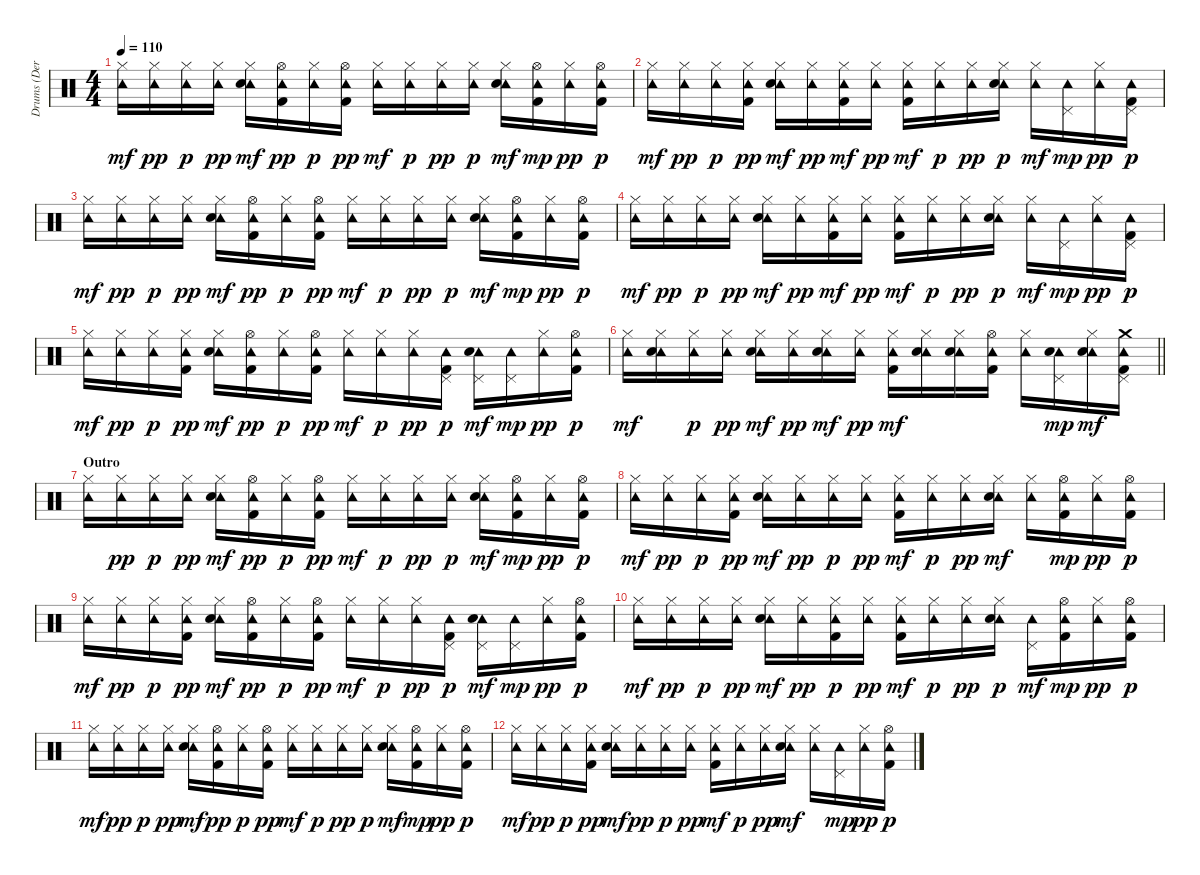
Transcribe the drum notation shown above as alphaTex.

\track ("Drums (Derrick McKenzie)" "Drums (Der") {instrument percussion}
\staff {score}
\articulation defaults
\ts (4 4)
\tempo 110
\clef neutral
\ks c
("Hi-Hat (closed)" "Tambourine (hit)").16{dy mf} ("Hi-Hat (closed)" "Tambourine (hit)").16{dy pp} ("Hi-Hat (closed)" "Tambourine (hit)").16{dy p} ("Hi-Hat (closed)" "Tambourine (hit)").16{dy pp} ("Hi-Hat (closed)" "Tambourine (hit)" "Electric Snare (hit)").16{dy mf} ("Hi-Hat (open)" "Tambourine (hit)" "Kick (hit) 2").16{dy pp} ("Hi-Hat (closed)" "Tambourine (hit)").16{dy p} ("Hi-Hat (open)" "Tambourine (hit)" "Kick (hit) 2").16{dy pp} ("Hi-Hat (closed)" "Tambourine (hit)").16{dy mf} ("Hi-Hat (closed)" "Tambourine (hit)").16{dy p} ("Hi-Hat (closed)" "Tambourine (hit)").16{dy pp} ("Hi-Hat (closed)" "Tambourine (hit)").16{dy p} ("Hi-Hat (closed)" "Tambourine (hit)" "Electric Snare (hit)").16{dy mf} ("Hi-Hat (open)" "Tambourine (hit)" "Kick (hit) 2").16{dy mp} ("Hi-Hat (closed)" "Tambourine (hit)").16{dy pp} ("Hi-Hat (open)" "Tambourine (hit)" "Kick (hit) 2").16{dy p} |
("Hi-Hat (closed)" "Tambourine (hit)").16{dy mf} ("Hi-Hat (closed)" "Tambourine (hit)").16{dy pp} ("Hi-Hat (closed)" "Tambourine (hit)").16{dy p} ("Hi-Hat (closed)" "Tambourine (hit)" "Kick (hit) 2").16{dy pp} ("Hi-Hat (closed)" "Tambourine (hit)" "Electric Snare (hit)").16{dy mf} ("Hi-Hat (closed)" "Tambourine (hit)").16{dy pp} ("Hi-Hat (closed)" "Tambourine (hit)" "Kick (hit) 2").16{dy mf} ("Hi-Hat (closed)" "Tambourine (hit)").16{dy pp} ("Hi-Hat (closed)" "Tambourine (hit)" "Kick (hit) 2").16{dy mf} ("Hi-Hat (closed)" "Tambourine (hit)").16{dy p} ("Hi-Hat (closed)" "Tambourine (hit)").16{dy pp} ("Hi-Hat (closed)" "Tambourine (hit)" "Electric Snare (hit)").16{dy p} ("Hi-Hat (closed)" "Tambourine (hit)").16{dy mf} ("Pedal Hi-Hat (hit)" "Tambourine (hit)").16{dy mp} ("Hi-Hat (closed)" "Tambourine (hit)").16{dy pp} ("Pedal Hi-Hat (hit)" "Tambourine (hit)" "Kick (hit) 2").16{dy p} |
("Hi-Hat (closed)" "Tambourine (hit)").16{dy mf} ("Hi-Hat (closed)" "Tambourine (hit)").16{dy pp} ("Hi-Hat (closed)" "Tambourine (hit)").16{dy p} ("Hi-Hat (closed)" "Tambourine (hit)").16{dy pp} ("Hi-Hat (closed)" "Tambourine (hit)" "Electric Snare (hit)").16{dy mf} ("Hi-Hat (open)" "Tambourine (hit)" "Kick (hit) 2").16{dy pp} ("Hi-Hat (closed)" "Tambourine (hit)").16{dy p} ("Hi-Hat (open)" "Tambourine (hit)" "Kick (hit) 2").16{dy pp} ("Hi-Hat (closed)" "Tambourine (hit)").16{dy mf} ("Hi-Hat (closed)" "Tambourine (hit)").16{dy p} ("Hi-Hat (closed)" "Tambourine (hit)").16{dy pp} ("Hi-Hat (closed)" "Tambourine (hit)").16{dy p} ("Hi-Hat (closed)" "Tambourine (hit)" "Electric Snare (hit)").16{dy mf} ("Hi-Hat (open)" "Tambourine (hit)" "Kick (hit) 2").16{dy mp} ("Hi-Hat (closed)" "Tambourine (hit)").16{dy pp} ("Hi-Hat (open)" "Tambourine (hit)" "Kick (hit) 2").16{dy p} |
("Hi-Hat (closed)" "Tambourine (hit)").16{dy mf} ("Hi-Hat (closed)" "Tambourine (hit)").16{dy pp} ("Hi-Hat (closed)" "Tambourine (hit)").16{dy p} ("Hi-Hat (closed)" "Tambourine (hit)").16{dy pp} ("Hi-Hat (closed)" "Tambourine (hit)" "Electric Snare (hit)").16{dy mf} ("Hi-Hat (closed)" "Tambourine (hit)").16{dy pp} ("Hi-Hat (closed)" "Tambourine (hit)" "Kick (hit) 2").16{dy mf} ("Hi-Hat (closed)" "Tambourine (hit)").16{dy pp} ("Hi-Hat (closed)" "Tambourine (hit)" "Kick (hit) 2").16{dy mf} ("Hi-Hat (closed)" "Tambourine (hit)").16{dy p} ("Hi-Hat (closed)" "Tambourine (hit)").16{dy pp} ("Hi-Hat (closed)" "Tambourine (hit)" "Electric Snare (hit)").16{dy p} ("Hi-Hat (closed)" "Tambourine (hit)").16{dy mf} ("Pedal Hi-Hat (hit)" "Tambourine (hit)").16{dy mp} ("Hi-Hat (closed)" "Tambourine (hit)").16{dy pp} ("Pedal Hi-Hat (hit)" "Tambourine (hit)" "Kick (hit) 2").16{dy p} |
("Hi-Hat (closed)" "Tambourine (hit)").16{dy mf} ("Hi-Hat (closed)" "Tambourine (hit)").16{dy pp} ("Hi-Hat (closed)" "Tambourine (hit)").16{dy p} ("Hi-Hat (closed)" "Tambourine (hit)" "Kick (hit) 2").16{dy pp} ("Hi-Hat (closed)" "Tambourine (hit)" "Electric Snare (hit)").16{dy mf} ("Hi-Hat (open)" "Tambourine (hit)" "Kick (hit) 2").16{dy pp} ("Hi-Hat (closed)" "Tambourine (hit)").16{dy p} ("Hi-Hat (open)" "Tambourine (hit)" "Kick (hit) 2").16{dy pp} ("Hi-Hat (closed)" "Tambourine (hit)").16{dy mf} ("Hi-Hat (closed)" "Tambourine (hit)").16{dy p} ("Hi-Hat (closed)" "Tambourine (hit)").16{dy pp} ("Pedal Hi-Hat (hit)" "Tambourine (hit)" "Kick (hit) 2").16{dy p} ("Pedal Hi-Hat (hit)" "Tambourine (hit)" "Electric Snare (hit)").16{dy mf} ("Pedal Hi-Hat (hit)" "Tambourine (hit)").16{dy mp} ("Hi-Hat (closed)" "Tambourine (hit)").16{dy pp} ("Hi-Hat (open)" "Tambourine (hit)" "Kick (hit) 2").16{dy p} |
\barLineRight lightlight
("Hi-Hat (closed)" "Tambourine (hit)").16{dy mf} ("Hi-Hat (closed)" "Tambourine (hit)" "Electric Snare (hit)").16 ("Hi-Hat (closed)" "Tambourine (hit)").16{dy p} ("Hi-Hat (closed)" "Tambourine (hit)").16{dy pp} ("Hi-Hat (closed)" "Tambourine (hit)" "Electric Snare (hit)").16{dy mf} ("Hi-Hat (closed)" "Tambourine (hit)").16{dy pp} ("Hi-Hat (closed)" "Tambourine (hit)" "Electric Snare (hit)").16{dy mf} ("Hi-Hat (closed)" "Tambourine (hit)").16{dy pp} ("Hi-Hat (closed)" "Tambourine (hit)" "Kick (hit) 2").16{dy mf} ("Hi-Hat (closed)" "Tambourine (hit)" "Electric Snare (hit)").16 ("Hi-Hat (closed)" "Tambourine (hit)" "Electric Snare (hit)").16 ("Hi-Hat (open)" "Tambourine (hit)" "Kick (hit) 2").16 ("Hi-Hat (closed)" "Tambourine (hit)").16 ("Pedal Hi-Hat (hit)" "Tambourine (hit)" "Electric Snare (hit)").16{dy mp} ("Hi-Hat (closed)" "Tambourine (hit)" "Electric Snare (hit)").16{dy mf} ("Pedal Hi-Hat (hit)" "Tambourine (hit)" "Crash medium (hit)" "Kick (hit) 2").16 |
\section ("" "Outro")
("Hi-Hat (closed)" "Tambourine (hit)").16{volume 6} ("Hi-Hat (closed)" "Tambourine (hit)").16{dy pp} ("Hi-Hat (closed)" "Tambourine (hit)").16{dy p} ("Hi-Hat (closed)" "Tambourine (hit)").16{dy pp} ("Hi-Hat (closed)" "Tambourine (hit)" "Electric Snare (hit)").16{dy mf} ("Hi-Hat (open)" "Tambourine (hit)" "Kick (hit) 2").16{dy pp} ("Hi-Hat (closed)" "Tambourine (hit)").16{dy p} ("Hi-Hat (open)" "Tambourine (hit)" "Kick (hit) 2").16{dy pp} ("Hi-Hat (closed)" "Tambourine (hit)").16{dy mf} ("Hi-Hat (closed)" "Tambourine (hit)").16{dy p} ("Hi-Hat (closed)" "Tambourine (hit)").16{dy pp} ("Hi-Hat (closed)" "Tambourine (hit)").16{dy p} ("Hi-Hat (closed)" "Tambourine (hit)" "Electric Snare (hit)").16{dy mf} ("Hi-Hat (open)" "Tambourine (hit)" "Kick (hit) 2").16{dy mp} ("Hi-Hat (closed)" "Tambourine (hit)").16{dy pp} ("Hi-Hat (open)" "Tambourine (hit)" "Kick (hit) 2").16{dy p} |
("Hi-Hat (closed)" "Tambourine (hit)").16{dy mf} ("Hi-Hat (closed)" "Tambourine (hit)").16{dy pp} ("Hi-Hat (closed)" "Tambourine (hit)").16{dy p} ("Hi-Hat (closed)" "Tambourine (hit)" "Kick (hit) 2").16{dy pp} ("Hi-Hat (closed)" "Tambourine (hit)" "Electric Snare (hit)").16{dy mf} ("Hi-Hat (closed)" "Tambourine (hit)").16{dy pp} ("Hi-Hat (closed)" "Tambourine (hit)").16{dy p} ("Hi-Hat (closed)" "Tambourine (hit)").16{dy pp} ("Hi-Hat (closed)" "Tambourine (hit)" "Kick (hit) 2").16{dy mf} ("Hi-Hat (closed)" "Tambourine (hit)").16{dy p} ("Hi-Hat (closed)" "Tambourine (hit)").16{dy pp} ("Hi-Hat (closed)" "Tambourine (hit)" "Electric Snare (hit)").16{dy mf} ("Hi-Hat (closed)" "Tambourine (hit)").16 ("Hi-Hat (open)" "Tambourine (hit)" "Kick (hit) 2").16{dy mp} ("Hi-Hat (closed)" "Tambourine (hit)").16{dy pp} ("Hi-Hat (open)" "Tambourine (hit)" "Kick (hit) 2").16{dy p} |
("Hi-Hat (closed)" "Tambourine (hit)").16{dy mf} ("Hi-Hat (closed)" "Tambourine (hit)").16{dy pp} ("Hi-Hat (closed)" "Tambourine (hit)").16{dy p} ("Hi-Hat (closed)" "Tambourine (hit)" "Kick (hit) 2").16{dy pp} ("Hi-Hat (closed)" "Tambourine (hit)" "Electric Snare (hit)").16{dy mf} ("Hi-Hat (open)" "Tambourine (hit)" "Kick (hit) 2").16{dy pp} ("Hi-Hat (closed)" "Tambourine (hit)").16{dy p} ("Hi-Hat (open)" "Tambourine (hit)" "Kick (hit) 2").16{dy pp} ("Hi-Hat (closed)" "Tambourine (hit)").16{dy mf} ("Hi-Hat (closed)" "Tambourine (hit)").16{dy p} ("Hi-Hat (closed)" "Tambourine (hit)").16{dy pp} ("Pedal Hi-Hat (hit)" "Tambourine (hit)" "Kick (hit) 2").16{dy p} ("Pedal Hi-Hat (hit)" "Tambourine (hit)" "Electric Snare (hit)").16{dy mf} ("Pedal Hi-Hat (hit)" "Tambourine (hit)").16{dy mp} ("Hi-Hat (closed)" "Tambourine (hit)").16{dy pp} ("Hi-Hat (open)" "Tambourine (hit)" "Kick (hit) 2").16{dy p} |
("Hi-Hat (closed)" "Tambourine (hit)").16{dy mf} ("Hi-Hat (closed)" "Tambourine (hit)").16{dy pp} ("Hi-Hat (closed)" "Tambourine (hit)").16{dy p} ("Hi-Hat (closed)" "Tambourine (hit)").16{dy pp} ("Hi-Hat (closed)" "Tambourine (hit)" "Electric Snare (hit)").16{dy mf} ("Hi-Hat (closed)" "Tambourine (hit)").16{dy pp} ("Hi-Hat (closed)" "Tambourine (hit)" "Kick (hit) 2").16{dy p} ("Hi-Hat (closed)" "Tambourine (hit)").16{dy pp} ("Hi-Hat (closed)" "Tambourine (hit)" "Kick (hit) 2").16{dy mf} ("Hi-Hat (closed)" "Tambourine (hit)").16{dy p} ("Hi-Hat (closed)" "Tambourine (hit)").16{dy pp} ("Hi-Hat (closed)" "Tambourine (hit)" "Electric Snare (hit)").16{dy p} ("Pedal Hi-Hat (hit)" "Tambourine (hit)").16{dy mf} ("Hi-Hat (open)" "Tambourine (hit)" "Kick (hit) 2").16{dy mp} ("Hi-Hat (closed)" "Tambourine (hit)").16{dy pp} ("Hi-Hat (open)" "Tambourine (hit)" "Kick (hit) 2").16{dy p} |
("Hi-Hat (closed)" "Tambourine (hit)").16{dy mf volume 0} ("Hi-Hat (closed)" "Tambourine (hit)").16{dy pp} ("Hi-Hat (closed)" "Tambourine (hit)").16{dy p} ("Hi-Hat (closed)" "Tambourine (hit)").16{dy pp} ("Hi-Hat (closed)" "Tambourine (hit)" "Electric Snare (hit)").16{dy mf} ("Hi-Hat (open)" "Tambourine (hit)" "Kick (hit) 2").16{dy pp} ("Hi-Hat (closed)" "Tambourine (hit)").16{dy p} ("Hi-Hat (open)" "Tambourine (hit)" "Kick (hit) 2").16{dy pp} ("Hi-Hat (closed)" "Tambourine (hit)").16{dy mf} ("Hi-Hat (closed)" "Tambourine (hit)").16{dy p} ("Hi-Hat (closed)" "Tambourine (hit)").16{dy pp} ("Hi-Hat (closed)" "Tambourine (hit)").16{dy p} ("Hi-Hat (closed)" "Tambourine (hit)" "Electric Snare (hit)").16{dy mf} ("Hi-Hat (open)" "Tambourine (hit)" "Kick (hit) 2").16{dy mp} ("Hi-Hat (closed)" "Tambourine (hit)").16{dy pp} ("Hi-Hat (open)" "Tambourine (hit)" "Kick (hit) 2").16{dy p} |
("Hi-Hat (closed)" "Tambourine (hit)").16{dy mf} ("Hi-Hat (closed)" "Tambourine (hit)").16{dy pp} ("Hi-Hat (closed)" "Tambourine (hit)").16{dy p} ("Hi-Hat (closed)" "Tambourine (hit)" "Kick (hit) 2").16{dy pp} ("Hi-Hat (closed)" "Tambourine (hit)" "Electric Snare (hit)").16{dy mf} ("Hi-Hat (closed)" "Tambourine (hit)").16{dy pp} ("Hi-Hat (closed)" "Tambourine (hit)").16{dy p} ("Hi-Hat (closed)" "Tambourine (hit)").16{dy pp} ("Hi-Hat (closed)" "Tambourine (hit)" "Kick (hit) 2").16{dy mf} ("Hi-Hat (closed)" "Tambourine (hit)").16{dy p} ("Hi-Hat (closed)" "Tambourine (hit)").16{dy pp} ("Hi-Hat (closed)" "Tambourine (hit)" "Electric Snare (hit)").16{dy mf} ("Hi-Hat (closed)" "Tambourine (hit)").16 ("Pedal Hi-Hat (hit)" "Tambourine (hit)").16{dy mp} ("Hi-Hat (closed)" "Tambourine (hit)").16{dy pp} ("Hi-Hat (open)" "Tambourine (hit)" "Kick (hit) 2").16{dy p}
